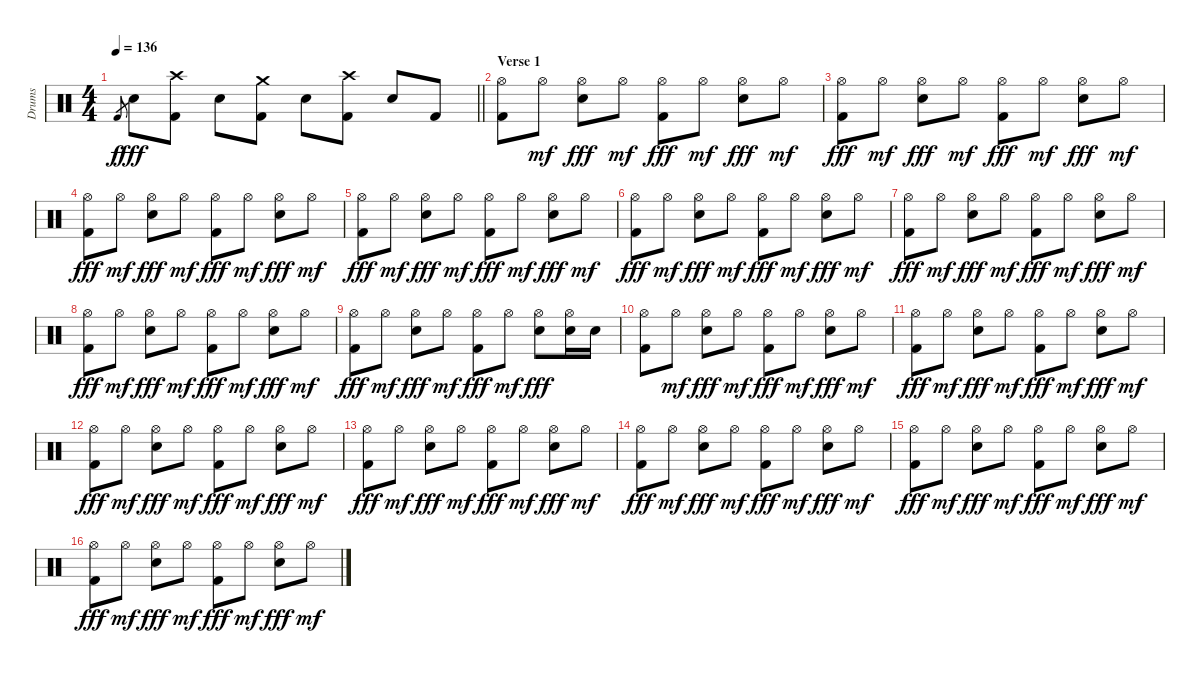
\track ("Drums" "Drums") {instrument percussion}
\staff {score}
\articulation defaults
\ts (4 4)
\tempo 136
\clef neutral
\barLineRight lightlight
\ks c "Kick (hit) 2".8{gr dy f} "Electric Snare (hit)".8{dy fff}
("Crash high (hit)" "Kick (hit) 2").8 "Electric Snare (hit)".8 ("Crash medium (hit)" "Kick (hit) 2").8 "Electric Snare (hit)".8 ("Crash high (hit)" "Kick (hit) 2").8 "Electric Snare (hit)".8 "Kick (hit) 2".8 |
\section ("" "Verse 1")
("Hi-Hat (open)" "Kick (hit) 2").8 "Hi-Hat (open)".8{dy mf} ("Hi-Hat (open)" "Electric Snare (hit)").8{dy fff} "Hi-Hat (open)".8{dy mf} ("Hi-Hat (open)" "Kick (hit) 2").8{dy fff} "Hi-Hat (open)".8{dy mf} ("Hi-Hat (open)" "Electric Snare (hit)").8{dy fff} "Hi-Hat (open)".8{dy mf} |
("Hi-Hat (open)" "Kick (hit) 2").8{dy fff} "Hi-Hat (open)".8{dy mf} ("Hi-Hat (open)" "Electric Snare (hit)").8{dy fff} "Hi-Hat (open)".8{dy mf} ("Hi-Hat (open)" "Kick (hit) 2").8{dy fff} "Hi-Hat (open)".8{dy mf} ("Hi-Hat (open)" "Electric Snare (hit)").8{dy fff} "Hi-Hat (open)".8{dy mf} |
("Hi-Hat (open)" "Kick (hit) 2").8{dy fff} "Hi-Hat (open)".8{dy mf} ("Hi-Hat (open)" "Electric Snare (hit)").8{dy fff} "Hi-Hat (open)".8{dy mf} ("Hi-Hat (open)" "Kick (hit) 2").8{dy fff} "Hi-Hat (open)".8{dy mf} ("Hi-Hat (open)" "Electric Snare (hit)").8{dy fff} "Hi-Hat (open)".8{dy mf} |
("Hi-Hat (open)" "Kick (hit) 2").8{dy fff} "Hi-Hat (open)".8{dy mf} ("Hi-Hat (open)" "Electric Snare (hit)").8{dy fff} "Hi-Hat (open)".8{dy mf} ("Hi-Hat (open)" "Kick (hit) 2").8{dy fff} "Hi-Hat (open)".8{dy mf} ("Hi-Hat (open)" "Electric Snare (hit)").8{dy fff} "Hi-Hat (open)".8{dy mf} |
("Hi-Hat (open)" "Kick (hit) 2").8{dy fff} "Hi-Hat (open)".8{dy mf} ("Hi-Hat (open)" "Electric Snare (hit)").8{dy fff} "Hi-Hat (open)".8{dy mf} ("Hi-Hat (open)" "Kick (hit) 2").8{dy fff} "Hi-Hat (open)".8{dy mf} ("Hi-Hat (open)" "Electric Snare (hit)").8{dy fff} "Hi-Hat (open)".8{dy mf} |
("Hi-Hat (open)" "Kick (hit) 2").8{dy fff} "Hi-Hat (open)".8{dy mf} ("Hi-Hat (open)" "Electric Snare (hit)").8{dy fff} "Hi-Hat (open)".8{dy mf} ("Hi-Hat (open)" "Kick (hit) 2").8{dy fff} "Hi-Hat (open)".8{dy mf} ("Hi-Hat (open)" "Electric Snare (hit)").8{dy fff} "Hi-Hat (open)".8{dy mf} |
("Hi-Hat (open)" "Kick (hit) 2").8{dy fff} "Hi-Hat (open)".8{dy mf} ("Hi-Hat (open)" "Electric Snare (hit)").8{dy fff} "Hi-Hat (open)".8{dy mf} ("Hi-Hat (open)" "Kick (hit) 2").8{dy fff} "Hi-Hat (open)".8{dy mf} ("Hi-Hat (open)" "Electric Snare (hit)").8{dy fff} "Hi-Hat (open)".8{dy mf} |
("Hi-Hat (open)" "Kick (hit) 2").8{dy fff} "Hi-Hat (open)".8{dy mf} ("Hi-Hat (open)" "Electric Snare (hit)").8{dy fff} "Hi-Hat (open)".8{dy mf} ("Hi-Hat (open)" "Kick (hit) 2").8{dy fff} "Hi-Hat (open)".8{dy mf} ("Hi-Hat (open)" "Electric Snare (hit)").8{dy fff} ("Hi-Hat (open)" "Electric Snare (hit)").16 "Electric Snare (hit)".16 |
("Hi-Hat (open)" "Kick (hit) 2").8 "Hi-Hat (open)".8{dy mf} ("Hi-Hat (open)" "Electric Snare (hit)").8{dy fff} "Hi-Hat (open)".8{dy mf} ("Hi-Hat (open)" "Kick (hit) 2").8{dy fff} "Hi-Hat (open)".8{dy mf} ("Hi-Hat (open)" "Electric Snare (hit)").8{dy fff} "Hi-Hat (open)".8{dy mf} |
("Hi-Hat (open)" "Kick (hit) 2").8{dy fff} "Hi-Hat (open)".8{dy mf} ("Hi-Hat (open)" "Electric Snare (hit)").8{dy fff} "Hi-Hat (open)".8{dy mf} ("Hi-Hat (open)" "Kick (hit) 2").8{dy fff} "Hi-Hat (open)".8{dy mf} ("Hi-Hat (open)" "Electric Snare (hit)").8{dy fff} "Hi-Hat (open)".8{dy mf} |
("Hi-Hat (open)" "Kick (hit) 2").8{dy fff} "Hi-Hat (open)".8{dy mf} ("Hi-Hat (open)" "Electric Snare (hit)").8{dy fff} "Hi-Hat (open)".8{dy mf} ("Hi-Hat (open)" "Kick (hit) 2").8{dy fff} "Hi-Hat (open)".8{dy mf} ("Hi-Hat (open)" "Electric Snare (hit)").8{dy fff} "Hi-Hat (open)".8{dy mf} |
("Hi-Hat (open)" "Kick (hit) 2").8{dy fff} "Hi-Hat (open)".8{dy mf} ("Hi-Hat (open)" "Electric Snare (hit)").8{dy fff} "Hi-Hat (open)".8{dy mf} ("Hi-Hat (open)" "Kick (hit) 2").8{dy fff} "Hi-Hat (open)".8{dy mf} ("Hi-Hat (open)" "Electric Snare (hit)").8{dy fff} "Hi-Hat (open)".8{dy mf} |
("Hi-Hat (open)" "Kick (hit) 2").8{dy fff} "Hi-Hat (open)".8{dy mf} ("Hi-Hat (open)" "Electric Snare (hit)").8{dy fff} "Hi-Hat (open)".8{dy mf} ("Hi-Hat (open)" "Kick (hit) 2").8{dy fff} "Hi-Hat (open)".8{dy mf} ("Hi-Hat (open)" "Electric Snare (hit)").8{dy fff} "Hi-Hat (open)".8{dy mf} |
("Hi-Hat (open)" "Kick (hit) 2").8{dy fff} "Hi-Hat (open)".8{dy mf} ("Hi-Hat (open)" "Electric Snare (hit)").8{dy fff} "Hi-Hat (open)".8{dy mf} ("Hi-Hat (open)" "Kick (hit) 2").8{dy fff} "Hi-Hat (open)".8{dy mf} ("Hi-Hat (open)" "Electric Snare (hit)").8{dy fff} "Hi-Hat (open)".8{dy mf} |
("Hi-Hat (open)" "Kick (hit) 2").8{dy fff} "Hi-Hat (open)".8{dy mf} ("Hi-Hat (open)" "Electric Snare (hit)").8{dy fff} "Hi-Hat (open)".8{dy mf} ("Hi-Hat (open)" "Kick (hit) 2").8{dy fff} "Hi-Hat (open)".8{dy mf} ("Hi-Hat (open)" "Electric Snare (hit)").8{dy fff} "Hi-Hat (open)".8{dy mf}
